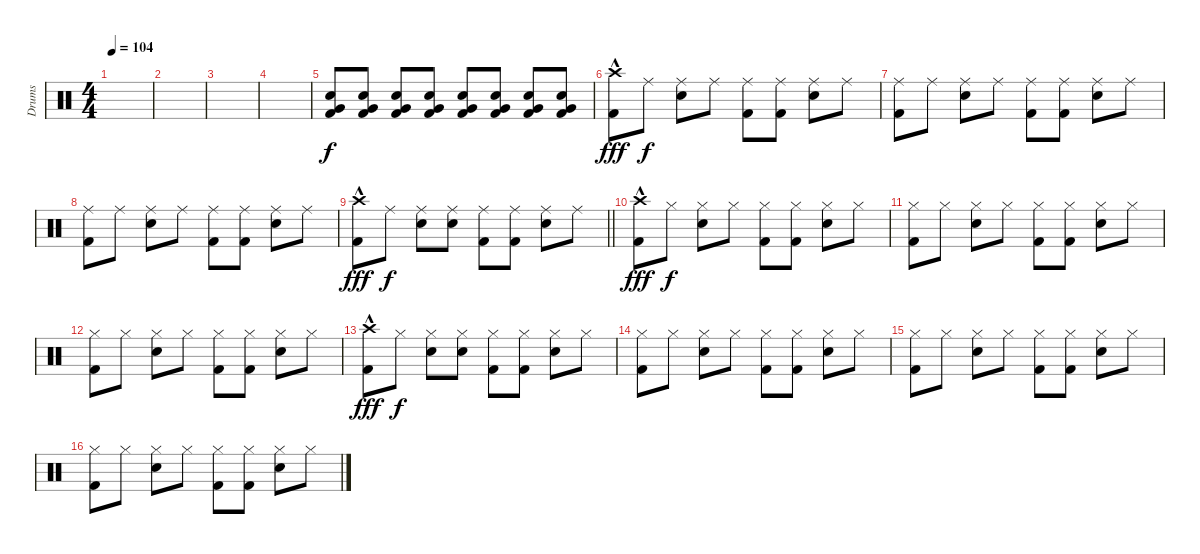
\track ("Drums" "Drums") {instrument percussion}
\staff {score}
\articulation defaults
\ts (4 4)
\tempo 104
\clef neutral
\ks c
|
|
|
|
("Snare (hit) 2" "Very Low Tom (hit)" "Kick (hit) 2").8 ("Snare (hit) 2" "Very Low Tom (hit)" "Kick (hit) 2").8 ("Snare (hit) 2" "Very Low Tom (hit)" "Kick (hit) 2").8 ("Snare (hit) 2" "Very Low Tom (hit)" "Kick (hit) 2").8 ("Snare (hit) 2" "Very Low Tom (hit)" "Kick (hit) 2").8 ("Snare (hit) 2" "Very Low Tom (hit)" "Kick (hit) 2").8 ("Snare (hit) 2" "Very Low Tom (hit)" "Kick (hit) 2").8 ("Snare (hit) 2" "Very Low Tom (hit)" "Kick (hit) 2").8 |
("Crash high (hit)"{hac} "Kick (hit) 2").8{dy fff} "Ride (middle)".8{dy f} ("Ride (middle)" "Snare (hit) 2").8 "Ride (middle)".8 ("Ride (middle)" "Kick (hit) 2").8 ("Ride (middle)" "Kick (hit) 2").8 ("Ride (middle)" "Snare (hit) 2").8 "Ride (middle)".8 |
("Ride (middle)" "Kick (hit) 2").8 "Ride (middle)".8 ("Ride (middle)" "Snare (hit) 2").8 "Ride (middle)".8 ("Ride (middle)" "Kick (hit) 2").8 ("Ride (middle)" "Kick (hit) 2").8 ("Ride (middle)" "Snare (hit) 2").8 "Ride (middle)".8 |
("Ride (middle)" "Kick (hit) 2").8 "Ride (middle)".8 ("Ride (middle)" "Snare (hit) 2").8 "Ride (middle)".8 ("Ride (middle)" "Kick (hit) 2").8 ("Ride (middle)" "Kick (hit) 2").8 ("Ride (middle)" "Snare (hit) 2").8 "Ride (middle)".8 |
\barLineRight lightlight
("Crash high (hit)"{hac} "Kick (hit) 2").8{dy fff} "Ride (middle)".8{dy f} ("Ride (middle)" "Snare (hit) 2").8 ("Ride (middle)" "Snare (hit) 2").8 ("Ride (middle)" "Kick (hit) 2").8 ("Ride (middle)" "Kick (hit) 2").8 ("Ride (middle)" "Snare (hit) 2").8 "Ride (middle)".8 |
("Crash high (hit)"{hac} "Kick (hit) 2").8{dy fff} "Hi-Hat (closed)".8{dy f} ("Hi-Hat (closed)" "Snare (hit) 2").8 "Hi-Hat (closed)".8 ("Hi-Hat (closed)" "Kick (hit) 2").8 ("Hi-Hat (closed)" "Kick (hit) 2").8 ("Hi-Hat (closed)" "Snare (hit) 2").8 "Hi-Hat (closed)".8 |
("Hi-Hat (closed)" "Kick (hit) 2").8 "Hi-Hat (closed)".8 ("Hi-Hat (closed)" "Snare (hit) 2").8 "Hi-Hat (closed)".8 ("Hi-Hat (closed)" "Kick (hit) 2").8 ("Hi-Hat (closed)" "Kick (hit) 2").8 ("Hi-Hat (closed)" "Snare (hit) 2").8 "Hi-Hat (closed)".8 |
("Hi-Hat (closed)" "Kick (hit) 2").8 "Hi-Hat (closed)".8 ("Hi-Hat (closed)" "Snare (hit) 2").8 "Hi-Hat (closed)".8 ("Hi-Hat (closed)" "Kick (hit) 2").8 ("Hi-Hat (closed)" "Kick (hit) 2").8 ("Hi-Hat (closed)" "Snare (hit) 2").8 "Hi-Hat (closed)".8 |
("Crash high (hit)"{hac} "Kick (hit) 2").8{dy fff} "Hi-Hat (closed)".8{dy f} ("Hi-Hat (closed)" "Snare (hit) 2").8 ("Hi-Hat (closed)" "Snare (hit) 2").8 ("Hi-Hat (closed)" "Kick (hit) 2").8 ("Hi-Hat (closed)" "Kick (hit) 2").8 ("Hi-Hat (closed)" "Snare (hit) 2").8 "Hi-Hat (closed)".8 |
("Hi-Hat (closed)" "Kick (hit) 2").8 "Hi-Hat (closed)".8 ("Hi-Hat (closed)" "Snare (hit) 2").8 "Hi-Hat (closed)".8 ("Hi-Hat (closed)" "Kick (hit) 2").8 ("Hi-Hat (closed)" "Kick (hit) 2").8 ("Hi-Hat (closed)" "Snare (hit) 2").8 "Hi-Hat (closed)".8 |
("Hi-Hat (closed)" "Kick (hit) 2").8 "Hi-Hat (closed)".8 ("Hi-Hat (closed)" "Snare (hit) 2").8 "Hi-Hat (closed)".8 ("Hi-Hat (closed)" "Kick (hit) 2").8 ("Hi-Hat (closed)" "Kick (hit) 2").8 ("Hi-Hat (closed)" "Snare (hit) 2").8 "Hi-Hat (closed)".8 |
("Hi-Hat (closed)" "Kick (hit) 2").8 "Hi-Hat (closed)".8 ("Hi-Hat (closed)" "Snare (hit) 2").8 "Hi-Hat (closed)".8 ("Hi-Hat (closed)" "Kick (hit) 2").8 ("Hi-Hat (closed)" "Kick (hit) 2").8 ("Hi-Hat (closed)" "Snare (hit) 2").8 "Hi-Hat (closed)".8
